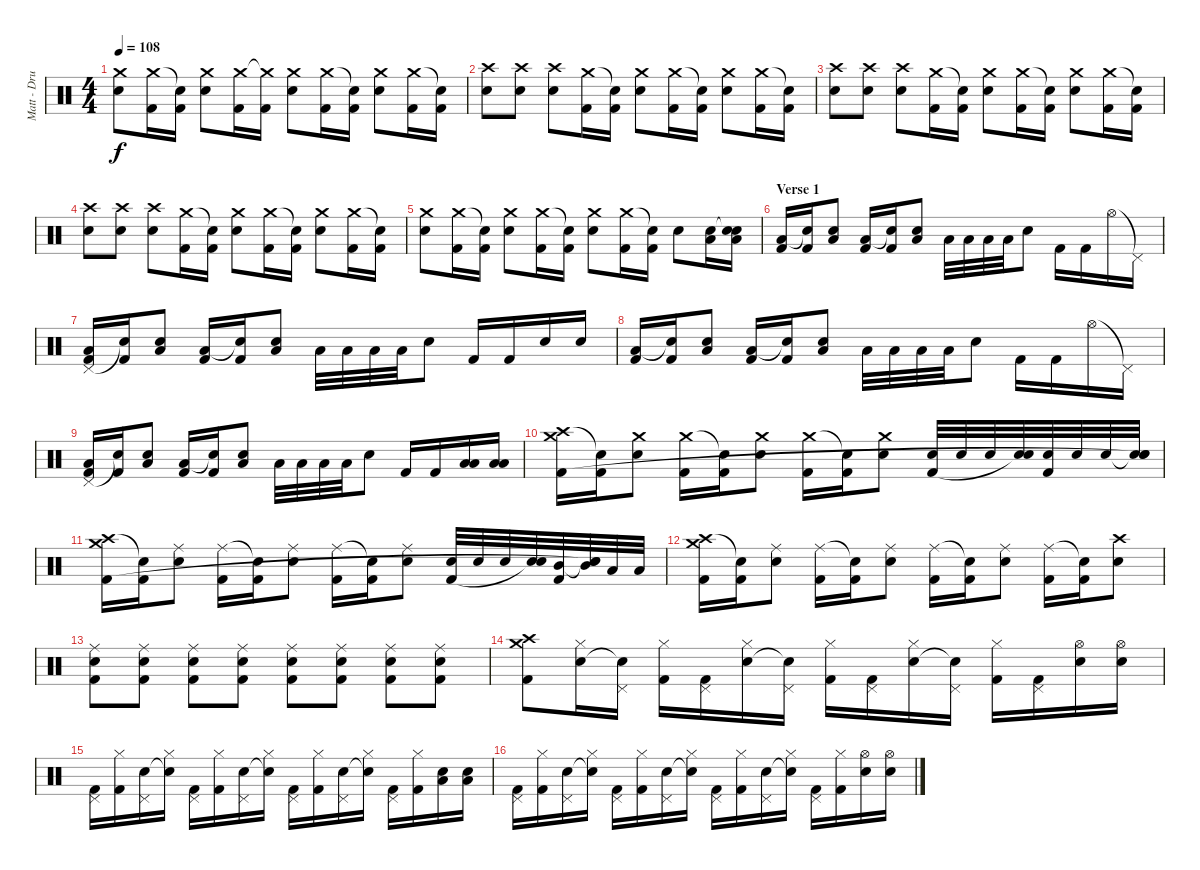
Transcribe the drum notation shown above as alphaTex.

\track ("Matt - Drums" "Matt - Dru") {instrument percussion}
\staff {score}
\articulation defaults
\ts (4 4)
\tempo 108
\clef neutral
\ks c
("Crash medium (hit)" "Snare (hit) 2").8{dy f} ("Crash medium (hit)" "Kick (hit) 2").16 ("Snare (hit)"{t} "Kick (hit) 2").16 ("Crash medium (hit)" "Snare (hit) 2").8 ("Crash medium (hit)" "Kick (hit) 2").16 ("Crash medium (hit)"{t} "Kick (hit) 2").16 ("Crash medium (hit)" "Snare (hit) 2").8 ("Crash medium (hit)" "Kick (hit) 2").16 ("Snare (hit)"{t} "Kick (hit) 2").16 ("Crash medium (hit)" "Snare (hit) 2").8 ("Crash medium (hit)" "Kick (hit) 2").16 ("Snare (hit)"{t} "Kick (hit) 2").16 |
("Crash high (hit)" "Snare (hit) 2").8 ("Crash high (hit)" "Snare (hit) 2").8 ("Crash high (hit)" "Snare (hit) 2").8 ("Crash medium (hit)" "Kick (hit) 2").16 ("Snare (hit)"{t} "Kick (hit) 2").16 ("Crash medium (hit)" "Snare (hit) 2").8 ("Crash medium (hit)" "Kick (hit) 2").16 ("Snare (hit)"{t} "Kick (hit) 2").16 ("Crash medium (hit)" "Snare (hit) 2").8 ("Crash medium (hit)" "Kick (hit) 2").16 ("Snare (hit)"{t} "Kick (hit) 2").16 |
("Crash high (hit)" "Snare (hit) 2").8 ("Crash high (hit)" "Snare (hit) 2").8 ("Crash high (hit)" "Snare (hit) 2").8 ("Crash medium (hit)" "Kick (hit) 2").16 ("Snare (hit)"{t} "Kick (hit) 2").16 ("Crash medium (hit)" "Snare (hit) 2").8 ("Crash medium (hit)" "Kick (hit) 2").16 ("Snare (hit)"{t} "Kick (hit) 2").16 ("Crash medium (hit)" "Snare (hit) 2").8 ("Crash medium (hit)" "Kick (hit) 2").16 ("Snare (hit)"{t} "Kick (hit) 2").16 |
("Crash high (hit)" "Snare (hit) 2").8 ("Crash high (hit)" "Snare (hit) 2").8 ("Crash high (hit)" "Snare (hit) 2").8 ("Crash medium (hit)" "Kick (hit) 2").16 ("Snare (hit)"{t} "Kick (hit) 2").16 ("Crash medium (hit)" "Snare (hit) 2").8 ("Crash medium (hit)" "Kick (hit) 2").16 ("Snare (hit)"{t} "Kick (hit) 2").16 ("Crash medium (hit)" "Snare (hit) 2").8 ("Crash medium (hit)" "Kick (hit) 2").16 ("Snare (hit)"{t} "Kick (hit) 2").16 |
("Crash medium (hit)" "Snare (hit) 2").8 ("Crash medium (hit)" "Kick (hit) 2").16 ("Snare (hit)"{t} "Kick (hit) 2").16 ("Crash medium (hit)" "Snare (hit) 2").8 ("Crash medium (hit)" "Kick (hit) 2").16 ("Snare (hit)"{t} "Kick (hit) 2").16 ("Crash medium (hit)" "Snare (hit) 2").8 ("Crash medium (hit)" "Kick (hit) 2").16 ("Snare (hit)"{t} "Kick (hit) 2").16 "Snare (hit) 2".8 ("Snare (hit) 2" "Low Floor Tom (hit)").16 ("Snare (hit)"{t} "Snare (hit) 2" "Low Floor Tom (hit)").16 |
\section ("" "Verse 1")
("Low Floor Tom (hit)" "Kick (hit) 2").16 ("Snare (hit)"{t} "Kick (hit) 2").16 ("Low Floor Tom (hit)" "Snare (hit) 2").8 ("Low Floor Tom (hit)" "Kick (hit) 2").16 ("Snare (hit)"{t} "Kick (hit) 2").16 ("Low Floor Tom (hit)" "Snare (hit) 2").8 "Low Tom (hit)".32 "Low Tom (hit)".32 "Low Floor Tom (hit)".32 "Low Floor Tom (hit)".32 "Snare (hit) 2".8 "Kick (hit) 2".16 "Kick (hit) 2".16 "Hi-Hat (open)".16 "Pedal Hi-Hat (hit)"{t}.16 |
("Pedal Hi-Hat (hit)" "Low Floor Tom (hit)" "Kick (hit) 2").16 ("Snare (hit)"{t} "Kick (hit) 2").16 ("Low Floor Tom (hit)" "Snare (hit) 2").8 ("Low Floor Tom (hit)" "Kick (hit) 2").16 ("Snare (hit)"{t} "Kick (hit) 2").16 ("Low Floor Tom (hit)" "Snare (hit) 2").8 "Low Tom (hit)".32 "Low Tom (hit)".32 "Low Floor Tom (hit)".32 "Low Floor Tom (hit)".32 "Snare (hit) 2".8 "Kick (hit) 2".16 "Kick (hit) 2".16 "Snare (hit) 2".16 "Snare (hit) 2".16 |
("Low Floor Tom (hit)" "Kick (hit) 2").16 ("Snare (hit)"{t} "Kick (hit) 2").16 ("Low Floor Tom (hit)" "Snare (hit) 2").8 ("Low Floor Tom (hit)" "Kick (hit) 2").16 ("Snare (hit)"{t} "Kick (hit) 2").16 ("Low Floor Tom (hit)" "Snare (hit) 2").8 "Low Tom (hit)".32 "Low Tom (hit)".32 "Low Floor Tom (hit)".32 "Low Floor Tom (hit)".32 "Snare (hit) 2".8 "Kick (hit) 2".16 "Kick (hit) 2".16 "Hi-Hat (open)".16 "Pedal Hi-Hat (hit)"{t}.16 |
("Pedal Hi-Hat (hit)" "Low Floor Tom (hit)" "Kick (hit) 2").16 ("Snare (hit)"{t} "Kick (hit) 2").16 ("Low Floor Tom (hit)" "Snare (hit) 2").8 ("Low Floor Tom (hit)" "Kick (hit) 2").16 ("Snare (hit)"{t} "Kick (hit) 2").16 ("Low Floor Tom (hit)" "Snare (hit) 2").8 "Low Tom (hit)".32 "Low Tom (hit)".32 "Low Floor Tom (hit)".32 "Low Floor Tom (hit)".32 "Snare (hit) 2".8 "Kick (hit) 2".16 "Kick (hit) 2".16 ("Low Tom (hit)" "Low Floor Tom (hit)").16 ("Low Tom (hit)" "Low Floor Tom (hit)").16 |
("Crash high (hit)" "Crash medium (hit)" "Kick (hit) 2").16 ("Snare (hit)"{t} "Kick (hit) 2").16 ("Crash medium (hit)" "Snare (hit) 2").8 ("Crash medium (hit)" "Kick (hit) 2").16 ("Snare (hit)"{t} "Kick (hit) 2").16 ("Crash medium (hit)" "Snare (hit) 2").8 ("Crash medium (hit)" "Kick (hit) 2").16 ("Snare (hit)"{t} "Kick (hit) 2").16 ("Crash medium (hit)" "Snare (hit) 2").8 ("Snare (hit) 2" "Kick (hit) 2").32 "Snare (hit) 2".32 "Snare (hit) 2".32 ("Snare (hit) 2" "Snare (hit)"{t}).32 ("Snare (hit) 2" "Kick (hit) 2").32 "Snare (hit) 2".32 "Snare (hit) 2".32 ("Snare (hit)"{t} "Snare (hit) 2" "Snare (hit)"{t}).32 |
("Crash high (hit)" "Crash medium (hit)" "Kick (hit) 2").16 ("Snare (hit)"{t} "Kick (hit) 2").16 ("Ride (middle)" "Snare (hit) 2").8 ("Ride (middle)" "Kick (hit) 2").16 ("Snare (hit)"{t} "Kick (hit) 2").16 ("Ride (middle)" "Snare (hit) 2").8 ("Ride (middle)" "Kick (hit) 2").16 ("Snare (hit)"{t} "Kick (hit) 2").16 ("Ride (middle)" "Snare (hit) 2").8 ("Snare (hit) 2" "Kick (hit) 2").32 "Snare (hit) 2".32 "Snare (hit) 2".32 ("Snare (hit) 2" "Snare (hit)"{t}).32 ("Mid Tom (hit)" "Kick (hit) 2").32 ("Snare (hit)"{t} "Mid Tom (hit)" "Snare (hit)"{t}).32 "Low Tom (hit)".32 "Low Tom (hit)".32 |
("Crash high (hit)" "Crash medium (hit)" "Kick (hit) 2").16 ("Snare (hit)"{t} "Kick (hit) 2").16 ("Ride (middle)" "Snare (hit) 2").8 ("Ride (middle)" "Kick (hit) 2").16 ("Snare (hit)"{t} "Kick (hit) 2").16 ("Ride (middle)" "Snare (hit) 2").8 ("Ride (middle)" "Kick (hit) 2").16 ("Snare (hit)"{t} "Kick (hit) 2").16 ("Ride (middle)" "Snare (hit) 2").8 ("Ride (middle)" "Kick (hit) 2").16 ("Snare (hit)"{t} "Kick (hit) 2").16 ("Crash high (hit)" "Snare (hit) 2").8 |
("Ride (middle)" "Snare (hit) 2" "Kick (hit) 2").8 ("Ride (middle)" "Snare (hit) 2" "Kick (hit) 2").8 ("Ride (middle)" "Snare (hit) 2" "Kick (hit) 2").8 ("Ride (middle)" "Snare (hit) 2" "Kick (hit) 2").8 ("Ride (middle)" "Snare (hit) 2" "Kick (hit) 2").8 ("Ride (middle)" "Snare (hit) 2" "Kick (hit) 2").8 ("Ride (middle)" "Snare (hit) 2" "Kick (hit) 2").8 ("Ride (middle)" "Snare (hit) 2" "Kick (hit) 2").8 |
("Crash high (hit)" "Crash medium (hit)" "Kick (hit) 2").8 ("Hi-Hat (closed)" "Snare (hit) 2").16 ("Pedal Hi-Hat (hit)" "Snare (hit)"{t}).16 ("Hi-Hat (closed)" "Kick (hit) 2").16 ("Pedal Hi-Hat (hit)" "Kick (hit) 2").16 ("Hi-Hat (closed)" "Snare (hit) 2").16 ("Pedal Hi-Hat (hit)" "Snare (hit)"{t}).16 ("Hi-Hat (closed)" "Kick (hit) 2").16 ("Pedal Hi-Hat (hit)" "Kick (hit) 2").16 ("Hi-Hat (closed)" "Snare (hit) 2").16 ("Pedal Hi-Hat (hit)" "Snare (hit)"{t}).16 ("Hi-Hat (closed)" "Kick (hit) 2").16 ("Pedal Hi-Hat (hit)" "Kick (hit) 2").16 ("Hi-Hat (open)" "Snare (hit) 2").16 ("Hi-Hat (open)" "Snare (hit) 2").16 |
("Pedal Hi-Hat (hit)" "Kick (hit) 2").16 ("Hi-Hat (closed)" "Kick (hit) 2").16 ("Pedal Hi-Hat (hit)" "Snare (hit) 2").16 ("Hi-Hat (closed)" "Snare (hit)"{t}).16 ("Pedal Hi-Hat (hit)" "Kick (hit) 2").16 ("Hi-Hat (closed)" "Kick (hit) 2").16 ("Pedal Hi-Hat (hit)" "Snare (hit) 2").16 ("Hi-Hat (closed)" "Snare (hit)"{t}).16 ("Pedal Hi-Hat (hit)" "Kick (hit) 2").16 ("Hi-Hat (closed)" "Kick (hit) 2").16 ("Pedal Hi-Hat (hit)" "Snare (hit) 2").16 ("Hi-Hat (closed)" "Snare (hit)"{t}).16 ("Pedal Hi-Hat (hit)" "Kick (hit) 2").16 ("Hi-Hat (closed)" "Kick (hit) 2").16 ("Snare (hit) 2" "Low Floor Tom (hit)").16 ("Snare (hit) 2" "Low Floor Tom (hit)").16 |
("Pedal Hi-Hat (hit)" "Kick (hit) 2").16 ("Hi-Hat (closed)" "Kick (hit) 2").16 ("Pedal Hi-Hat (hit)" "Snare (hit) 2").16 ("Hi-Hat (closed)" "Snare (hit)"{t}).16 ("Pedal Hi-Hat (hit)" "Kick (hit) 2").16 ("Hi-Hat (closed)" "Kick (hit) 2").16 ("Pedal Hi-Hat (hit)" "Snare (hit) 2").16 ("Hi-Hat (closed)" "Snare (hit)"{t}).16 ("Pedal Hi-Hat (hit)" "Kick (hit) 2").16 ("Hi-Hat (closed)" "Kick (hit) 2").16 ("Pedal Hi-Hat (hit)" "Snare (hit) 2").16 ("Hi-Hat (closed)" "Snare (hit)"{t}).16 ("Pedal Hi-Hat (hit)" "Kick (hit) 2").16 ("Hi-Hat (closed)" "Kick (hit) 2").16 ("Hi-Hat (open)" "Snare (hit) 2").16 ("Hi-Hat (open)" "Snare (hit) 2").16
